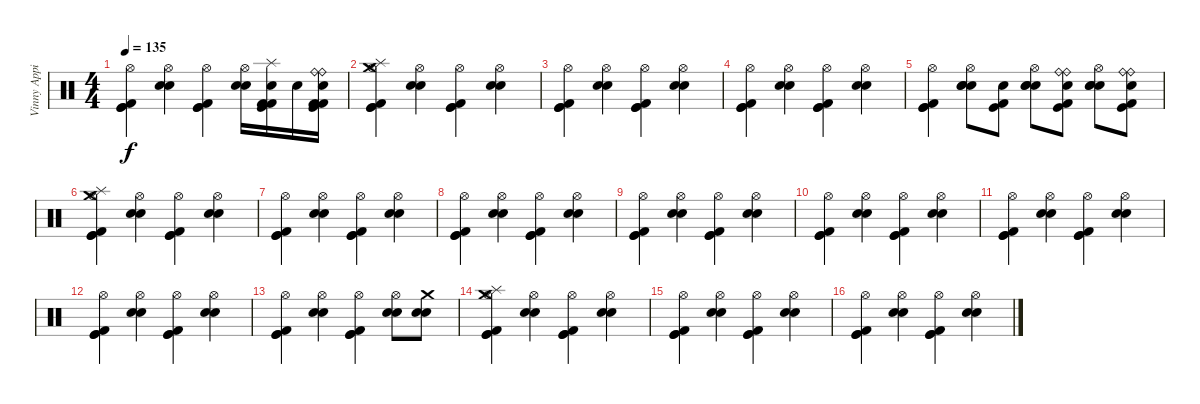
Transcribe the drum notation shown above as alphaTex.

\track ("Vinny Appice" "Vinny Appi") {instrument percussion}
\staff {score}
\articulation defaults
\ts (4 4)
\tempo 135
\clef neutral
\ks c
("Hi-Hat (open)" "Kick (hit)" "Kick (hit) 2" "Kick (hit)").4{dy f} ("Hi-Hat (open)" "Snare (hit) 2" "Snare (hit) 2").4 ("Hi-Hat (open)" "Kick (hit)" "Kick (hit) 2" "Kick (hit)").4 ("Hi-Hat (open)" "Snare (hit) 2" "Snare (hit) 2").16 ("Splash (hit)" "Electric Snare (hit)" "Kick (hit)" "Kick (hit) 2" "Kick (hit) 2").16 "Snare (hit) 2".16 ("Ride (bell)" "Ride (bell)" "Electric Snare (hit)" "Kick (hit)" "Kick (hit) 2" "Kick (hit) 2").16 |
("Hi-Hat (open)" "Kick (hit)" "Kick (hit) 2" "Kick (hit)" "Splash (hit)" "Crash medium (hit)").4 ("Hi-Hat (open)" "Snare (hit) 2" "Snare (hit) 2").4 ("Hi-Hat (open)" "Kick (hit)" "Kick (hit) 2" "Kick (hit)").4 ("Hi-Hat (open)" "Snare (hit) 2" "Snare (hit) 2").4 |
("Hi-Hat (open)" "Kick (hit)" "Kick (hit) 2" "Kick (hit)").4 ("Hi-Hat (open)" "Snare (hit) 2" "Snare (hit) 2").4 ("Hi-Hat (open)" "Kick (hit)" "Kick (hit) 2" "Kick (hit)").4 ("Hi-Hat (open)" "Snare (hit) 2" "Snare (hit) 2").4 |
("Hi-Hat (open)" "Kick (hit)" "Kick (hit) 2" "Kick (hit)").4 ("Hi-Hat (open)" "Snare (hit) 2" "Snare (hit) 2").4 ("Hi-Hat (open)" "Kick (hit)" "Kick (hit) 2" "Kick (hit)").4 ("Hi-Hat (open)" "Snare (hit) 2" "Snare (hit) 2").4 |
("Hi-Hat (open)" "Kick (hit)" "Kick (hit) 2" "Kick (hit)").4 ("Hi-Hat (open)" "Snare (hit) 2" "Snare (hit) 2" "Snare (hit) 2").8 ("Kick (hit) 2" "Kick (hit)" "Snare (hit) 2").8 ("Hi-Hat (open)" "Snare (hit) 2" "Snare (hit) 2" "Snare (hit) 2").8 ("Kick (hit) 2" "Kick (hit)" "Ride (bell)" "Snare (hit) 2" "Ride (bell)").8 ("Hi-Hat (open)" "Snare (hit) 2" "Snare (hit) 2" "Snare (hit) 2").8 ("Kick (hit) 2" "Kick (hit)" "Ride (bell)" "Snare (hit) 2" "Ride (bell)").8 |
("Hi-Hat (open)" "Kick (hit)" "Kick (hit) 2" "Kick (hit)" "Splash (hit)" "Crash medium (hit)").4 ("Hi-Hat (open)" "Snare (hit) 2" "Snare (hit) 2").4 ("Hi-Hat (open)" "Kick (hit)" "Kick (hit) 2" "Kick (hit)").4 ("Hi-Hat (open)" "Snare (hit) 2" "Snare (hit) 2").4 |
("Hi-Hat (open)" "Kick (hit)" "Kick (hit) 2" "Kick (hit)").4 ("Hi-Hat (open)" "Snare (hit) 2" "Snare (hit) 2").4 ("Hi-Hat (open)" "Kick (hit)" "Kick (hit) 2" "Kick (hit)").4 ("Hi-Hat (open)" "Snare (hit) 2" "Snare (hit) 2").4 |
("Hi-Hat (open)" "Kick (hit)" "Kick (hit) 2" "Kick (hit)").4 ("Hi-Hat (open)" "Snare (hit) 2" "Snare (hit) 2").4 ("Hi-Hat (open)" "Kick (hit)" "Kick (hit) 2" "Kick (hit)").4 ("Hi-Hat (open)" "Snare (hit) 2" "Snare (hit) 2").4 |
("Hi-Hat (open)" "Kick (hit)" "Kick (hit) 2" "Kick (hit)").4 ("Hi-Hat (open)" "Snare (hit) 2" "Snare (hit) 2").4 ("Hi-Hat (open)" "Kick (hit)" "Kick (hit) 2" "Kick (hit)").4 ("Hi-Hat (open)" "Snare (hit) 2" "Snare (hit) 2").4 |
("Hi-Hat (open)" "Kick (hit)" "Kick (hit) 2" "Kick (hit)").4 ("Hi-Hat (open)" "Snare (hit) 2" "Snare (hit) 2").4 ("Hi-Hat (open)" "Kick (hit)" "Kick (hit) 2" "Kick (hit)").4 ("Hi-Hat (open)" "Snare (hit) 2" "Snare (hit) 2").4 |
("Hi-Hat (open)" "Kick (hit)" "Kick (hit) 2" "Kick (hit)").4 ("Hi-Hat (open)" "Snare (hit) 2" "Snare (hit) 2").4 ("Hi-Hat (open)" "Kick (hit)" "Kick (hit) 2" "Kick (hit)").4 ("Hi-Hat (open)" "Snare (hit) 2" "Snare (hit) 2").4 |
("Hi-Hat (open)" "Kick (hit)" "Kick (hit) 2" "Kick (hit)").4 ("Hi-Hat (open)" "Snare (hit) 2" "Snare (hit) 2").4 ("Hi-Hat (open)" "Kick (hit)" "Kick (hit) 2" "Kick (hit)").4 ("Hi-Hat (open)" "Snare (hit) 2" "Snare (hit) 2").4 |
("Hi-Hat (open)" "Kick (hit)" "Kick (hit) 2" "Kick (hit)").4 ("Hi-Hat (open)" "Snare (hit) 2" "Snare (hit) 2").4 ("Hi-Hat (open)" "Kick (hit)" "Kick (hit) 2" "Kick (hit)").4 ("Hi-Hat (open)" "Snare (hit) 2" "Snare (hit) 2").8 ("Crash medium (hit)" "Snare (hit) 2" "Snare (hit) 2").8 |
("Hi-Hat (open)" "Kick (hit)" "Kick (hit) 2" "Kick (hit)" "Splash (hit)" "Crash medium (hit)").4 ("Hi-Hat (open)" "Snare (hit) 2" "Snare (hit) 2").4 ("Hi-Hat (open)" "Kick (hit)" "Kick (hit) 2" "Kick (hit)").4 ("Hi-Hat (open)" "Snare (hit) 2" "Snare (hit) 2").4 |
("Hi-Hat (open)" "Kick (hit)" "Kick (hit) 2" "Kick (hit)").4 ("Hi-Hat (open)" "Snare (hit) 2" "Snare (hit) 2").4 ("Hi-Hat (open)" "Kick (hit)" "Kick (hit) 2" "Kick (hit)").4 ("Hi-Hat (open)" "Snare (hit) 2" "Snare (hit) 2").4 |
("Hi-Hat (open)" "Kick (hit)" "Kick (hit) 2" "Kick (hit)").4 ("Hi-Hat (open)" "Snare (hit) 2" "Snare (hit) 2").4 ("Hi-Hat (open)" "Kick (hit)" "Kick (hit) 2" "Kick (hit)").4 ("Hi-Hat (open)" "Snare (hit) 2" "Snare (hit) 2").4
